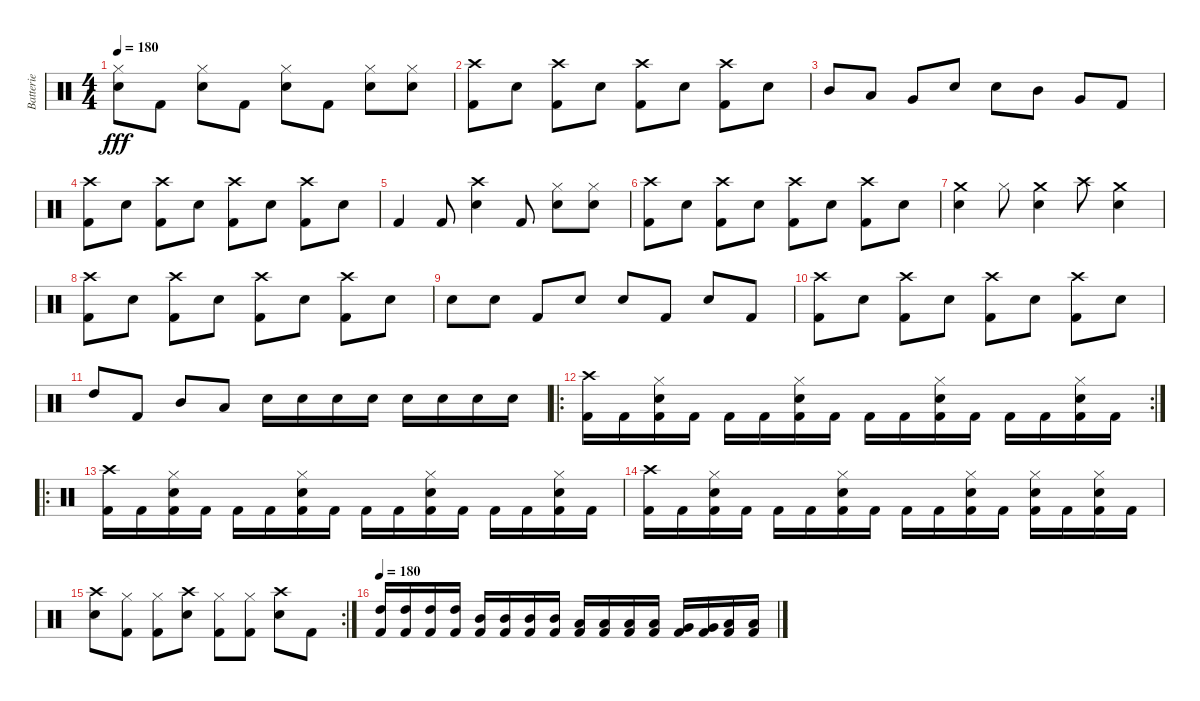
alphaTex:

\track ("Batterie" "Batterie") {instrument percussion}
\staff {score}
\articulation defaults
\ts (4 4)
\tempo 180
\clef neutral
\ks c
("Hi-Hat (closed)" "Snare (hit) 2").8{dy fff} "Kick (hit) 2".8 ("Hi-Hat (closed)" "Snare (hit) 2").8 "Kick (hit) 2".8 ("Hi-Hat (closed)" "Snare (hit) 2").8 "Kick (hit) 2".8 ("Hi-Hat (closed)" "Snare (hit) 2").8 ("Hi-Hat (closed)" "Snare (hit) 2").8 |
("Crash high (hit)" "Kick (hit) 2").8 "Snare (hit) 2".8 ("Crash high (hit)" "Kick (hit) 2").8 "Snare (hit) 2".8 ("Crash high (hit)" "Kick (hit) 2").8 "Snare (hit) 2".8 ("Crash high (hit)" "Kick (hit) 2").8 "Snare (hit) 2".8 |
"Mid Tom (hit)".8 "Low Tom (hit)".8 "Very Low Tom (hit)".8 "Snare (hit) 2".8 "Snare (hit) 2".8 "Mid Tom (hit)".8 "Very Low Tom (hit)".8 "Kick (hit) 2".8 |
("Crash high (hit)" "Kick (hit) 2").8 "Snare (hit) 2".8 ("Crash high (hit)" "Kick (hit) 2").8 "Snare (hit) 2".8 ("Crash high (hit)" "Kick (hit) 2").8 "Snare (hit) 2".8 ("Crash high (hit)" "Kick (hit) 2").8 "Snare (hit) 2".8 |
"Kick (hit) 2".4 "Kick (hit) 2".8 ("Crash high (hit)" "Snare (hit) 2").4 "Kick (hit) 2".8 ("Hi-Hat (closed)" "Snare (hit) 2").8 ("Hi-Hat (closed)" "Snare (hit) 2").8 |
("Crash high (hit)" "Kick (hit) 2").8 "Snare (hit) 2".8 ("Crash high (hit)" "Kick (hit) 2").8 "Snare (hit) 2".8 ("Crash high (hit)" "Kick (hit) 2").8 "Snare (hit) 2".8 ("Crash high (hit)" "Kick (hit) 2").8 "Snare (hit) 2".8 |
("Crash medium (hit)" "Snare (hit) 2").4 "Hi-Hat (closed)".8 ("Crash medium (hit)" "Snare (hit) 2").4 "Crash high (hit)".8 ("Crash medium (hit)" "Snare (hit) 2").4 |
("Crash high (hit)" "Kick (hit) 2").8 "Snare (hit) 2".8 ("Crash high (hit)" "Kick (hit) 2").8 "Snare (hit) 2".8 ("Crash high (hit)" "Kick (hit) 2").8 "Snare (hit) 2".8 ("Crash high (hit)" "Kick (hit) 2").8 "Snare (hit) 2".8 |
"Snare (hit) 2".8 "Snare (hit) 2".8 "Kick (hit) 2".8 "Snare (hit) 2".8 "Snare (hit) 2".8 "Kick (hit) 2".8 "Snare (hit) 2".8 "Kick (hit) 2".8 |
("Crash high (hit)" "Kick (hit) 2").8 "Snare (hit) 2".8 ("Crash high (hit)" "Kick (hit) 2").8 "Snare (hit) 2".8 ("Crash high (hit)" "Kick (hit) 2").8 "Snare (hit) 2".8 ("Crash high (hit)" "Kick (hit) 2").8 "Snare (hit) 2".8 |
"High Tom (hit)".8 "Kick (hit) 2".8 "Mid Tom (hit)".8 "Low Tom (hit)".8 "Snare (hit) 2".16 "Snare (hit) 2".16 "Snare (hit) 2".16 "Snare (hit) 2".16 "Snare (hit) 2".16 "Snare (hit) 2".16 "Snare (hit) 2".16 "Snare (hit) 2".16 |
\ro
\rc 2
("Crash high (hit)" "Kick (hit) 2").16 "Kick (hit) 2".16 ("Hi-Hat (closed)" "Snare (hit) 2" "Kick (hit) 2").16 "Kick (hit) 2".16 "Kick (hit) 2".16 "Kick (hit) 2".16 ("Hi-Hat (closed)" "Snare (hit) 2" "Kick (hit) 2").16 "Kick (hit) 2".16 "Kick (hit) 2".16 "Kick (hit) 2".16 ("Hi-Hat (closed)" "Snare (hit) 2" "Kick (hit) 2").16 "Kick (hit) 2".16 "Kick (hit) 2".16 "Kick (hit) 2".16 ("Hi-Hat (closed)" "Snare (hit) 2" "Kick (hit) 2").16 "Kick (hit) 2".16 |
\ro
("Crash high (hit)" "Kick (hit) 2").16 "Kick (hit) 2".16 ("Hi-Hat (closed)" "Snare (hit) 2" "Kick (hit) 2").16 "Kick (hit) 2".16 "Kick (hit) 2".16 "Kick (hit) 2".16 ("Hi-Hat (closed)" "Snare (hit) 2" "Kick (hit) 2").16 "Kick (hit) 2".16 "Kick (hit) 2".16 "Kick (hit) 2".16 ("Hi-Hat (closed)" "Snare (hit) 2" "Kick (hit) 2").16 "Kick (hit) 2".16 "Kick (hit) 2".16 "Kick (hit) 2".16 ("Hi-Hat (closed)" "Snare (hit) 2" "Kick (hit) 2").16 "Kick (hit) 2".16 |
("Crash high (hit)" "Kick (hit) 2").16 "Kick (hit) 2".16 ("Hi-Hat (closed)" "Snare (hit) 2" "Kick (hit) 2").16 "Kick (hit) 2".16 "Kick (hit) 2".16 "Kick (hit) 2".16 ("Hi-Hat (closed)" "Snare (hit) 2" "Kick (hit) 2").16 "Kick (hit) 2".16 "Kick (hit) 2".16 "Kick (hit) 2".16 ("Hi-Hat (closed)" "Snare (hit) 2" "Kick (hit) 2").16 "Kick (hit) 2".16 ("Hi-Hat (closed)" "Snare (hit) 2" "Kick (hit) 2").16 "Kick (hit) 2".16 ("Hi-Hat (closed)" "Snare (hit) 2" "Kick (hit) 2").16 "Kick (hit) 2".16 |
\rc 2
("Crash high (hit)" "Snare (hit) 2").8 ("Hi-Hat (closed)" "Kick (hit) 2").8 ("Hi-Hat (closed)" "Kick (hit) 2").8 ("Crash high (hit)" "Snare (hit) 2").8 ("Hi-Hat (closed)" "Kick (hit) 2").8 ("Hi-Hat (closed)" "Kick (hit) 2").8 ("Crash high (hit)" "Snare (hit) 2").8 "Kick (hit) 2".8 |
\tempo 180
("High Tom (hit)" "Kick (hit) 2").16 ("High Tom (hit)" "Kick (hit) 2").16 ("High Tom (hit)" "Kick (hit) 2").16 ("High Tom (hit)" "Kick (hit) 2").16 ("Mid Tom (hit)" "Kick (hit) 2").16 ("Mid Tom (hit)" "Kick (hit) 2").16 ("Mid Tom (hit)" "Kick (hit) 2").16 ("Mid Tom (hit)" "Kick (hit) 2").16 ("Low Tom (hit)" "Kick (hit) 2").16 ("Low Tom (hit)" "Kick (hit) 2").16 ("Low Tom (hit)" "Kick (hit) 2").16 ("Low Tom (hit)" "Kick (hit) 2").16 ("Very Low Tom (hit)" "Kick (hit) 2").16 ("Very Low Tom (hit)" "Kick (hit) 2").16 ("Low Floor Tom (hit)" "Kick (hit) 2").16 ("Low Floor Tom (hit)" "Kick (hit) 2").16
